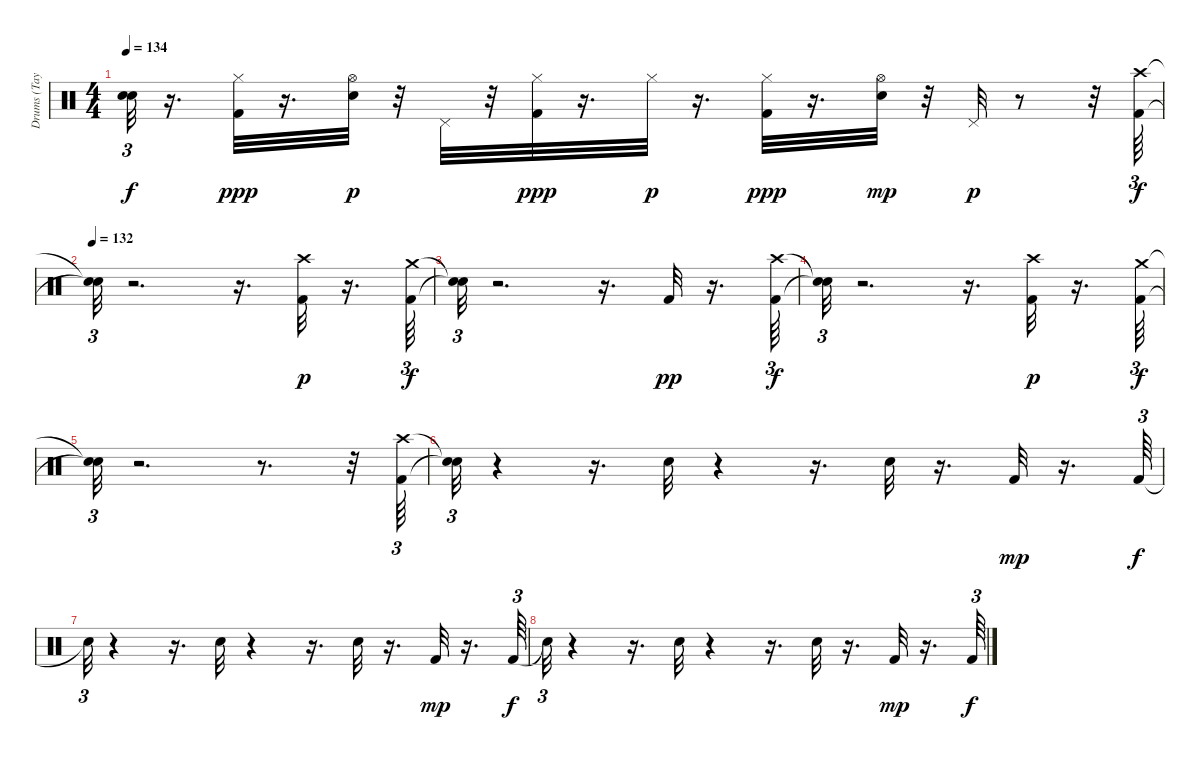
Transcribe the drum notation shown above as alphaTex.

\track ("Drums (Taylor)" "Drums (Tay") {instrument percussion}
\staff {score}
\articulation defaults
\ts (4 4)
\tempo 134
\clef neutral
\ks c
("Snare (hit)"{t} "Snare (hit)"{t}).32{tu (3 2) dy f} r.16{d} ("Kick (hit) 2" "Hi-Hat (closed)").32{dy ppp} r.16{d} ("Snare (hit) 2" "Hi-Hat (open)").32{dy p} r.32 "Pedal Hi-Hat (hit)".32 r.32 ("Kick (hit) 2" "Hi-Hat (closed)").32{dy ppp} r.16{d} "Hi-Hat (closed)".32{dy p} r.16{d} ("Kick (hit) 2" "Hi-Hat (closed)").32{dy ppp} r.16{d} ("Hi-Hat (open)" "Snare (hit) 2").32{dy mp} r.32 "Pedal Hi-Hat (hit)".32{dy p} r.8 r.32 ("Kick (hit) 2" "Crash high (hit)").64{tu (3 2) dy f} |
\tempo 132
("Snare (hit)"{t} "Snare (hit)"{t}).32{tu (3 2)} r.2{d} r.16{d} ("Crash high (hit)" "Kick (hit) 2").32{dy p} r.16{d} ("Crash medium (hit)" "Kick (hit) 2").64{tu (3 2) dy f} |
("Snare (hit)"{t} "Snare (hit)"{t}).32{tu (3 2)} r.2{d} r.16{d} "Kick (hit) 2".32{dy pp} r.16{d} ("Kick (hit) 2" "Crash high (hit)").64{tu (3 2) dy f} |
("Snare (hit)"{t} "Snare (hit)"{t}).32{tu (3 2)} r.2{d} r.16{d} ("Crash high (hit)" "Kick (hit) 2").32{dy p} r.16{d} ("Crash medium (hit)" "Kick (hit) 2").64{tu (3 2) dy f} |
("Snare (hit)"{t} "Snare (hit)"{t}).32{tu (3 2)} r.2{d} r.8{d} r.32 ("Crash high (hit)" "Kick (hit) 2").64{tu (3 2)} |
("Snare (hit)"{t} "Snare (hit)"{t}).32{tu (3 2)} r.4 r.16{d} "Snare (hit) 2".32 r.4 r.16{d} "Snare (hit) 2".32 r.16{d} "Kick (hit) 2".32{dy mp} r.16{d} "Kick (hit) 2".64{tu (3 2) dy f} |
"Snare (hit)"{t}.32{tu (3 2)} r.4 r.16{d} "Snare (hit) 2".32 r.4 r.16{d} "Snare (hit) 2".32 r.16{d} "Kick (hit) 2".32{dy mp} r.16{d} "Kick (hit) 2".64{tu (3 2) dy f} |
"Snare (hit)"{t}.32{tu (3 2)} r.4 r.16{d} "Snare (hit) 2".32 r.4 r.16{d} "Snare (hit) 2".32 r.16{d} "Kick (hit) 2".32{dy mp} r.16{d} "Kick (hit) 2".64{tu (3 2) dy f}
